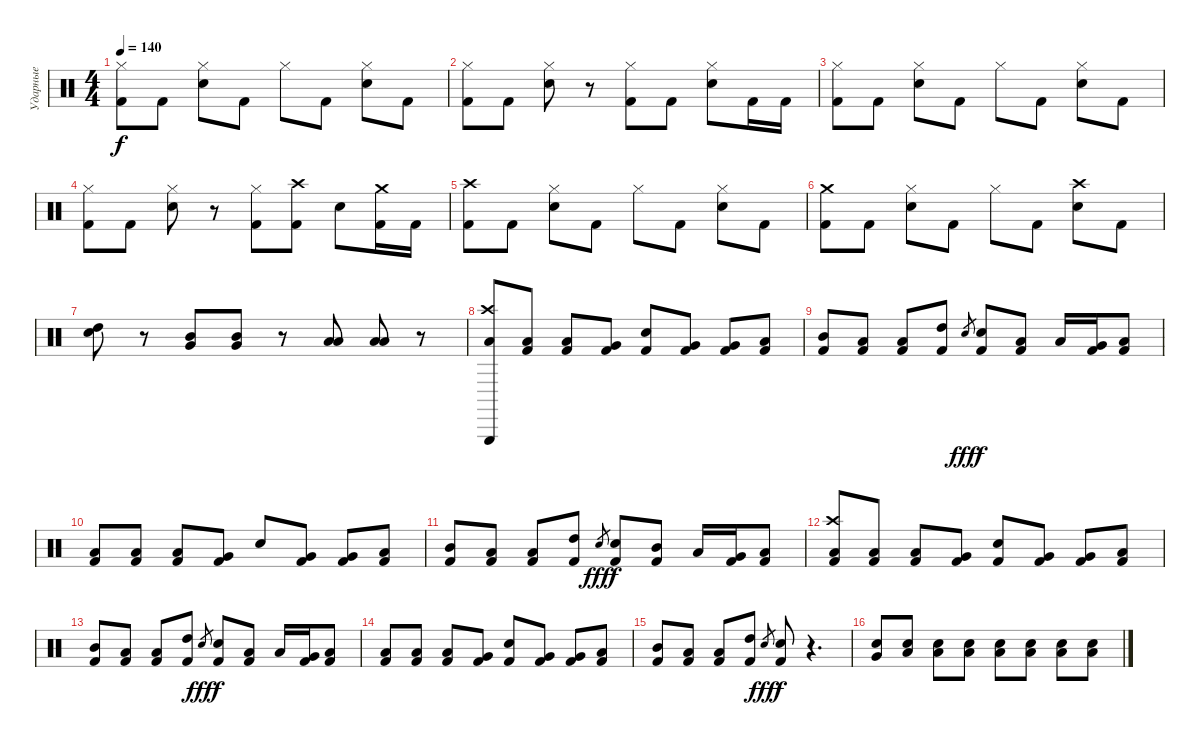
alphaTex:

\track ("Ударные" "Ударные") {instrument percussion}
\staff {score}
\articulation defaults
\ts (4 4)
\tempo 140
\clef neutral
\ks c
("Kick (hit) 2" "Hi-Hat (closed)").8{dy f} "Kick (hit) 2".8 ("Electric Snare (hit)" "Hi-Hat (closed)").8 "Kick (hit) 2".8 "Hi-Hat (closed)".8 "Kick (hit) 2".8 ("Electric Snare (hit)" "Hi-Hat (closed)").8 "Kick (hit) 2".8 |
("Kick (hit) 2" "Hi-Hat (closed)").8 "Kick (hit) 2".8 ("Electric Snare (hit)" "Hi-Hat (closed)").8 r.8 ("Kick (hit) 2" "Hi-Hat (closed)").8 "Kick (hit) 2".8 ("Electric Snare (hit)" "Hi-Hat (closed)").8 "Kick (hit) 2".16 "Kick (hit) 2".16 |
("Kick (hit) 2" "Hi-Hat (closed)").8 "Kick (hit) 2".8 ("Electric Snare (hit)" "Hi-Hat (closed)").8 "Kick (hit) 2".8 "Hi-Hat (closed)".8 "Kick (hit) 2".8 ("Electric Snare (hit)" "Hi-Hat (closed)").8 "Kick (hit) 2".8 |
("Kick (hit) 2" "Hi-Hat (closed)").8 "Kick (hit) 2".8 ("Electric Snare (hit)" "Hi-Hat (closed)").8 r.8 ("Kick (hit) 2" "Hi-Hat (closed)").8 ("Kick (hit) 2" "Crash high (hit)").8 "Electric Snare (hit)".8 ("Kick (hit) 2" "Crash medium (hit)").16 "Kick (hit) 2".16 |
("Kick (hit) 2" "Crash high (hit)").8 "Kick (hit) 2".8 ("Electric Snare (hit)" "Hi-Hat (closed)").8 "Kick (hit) 2".8 "Hi-Hat (closed)".8 "Kick (hit) 2".8 ("Electric Snare (hit)" "Hi-Hat (closed)").8 "Kick (hit) 2".8 |
("Kick (hit) 2" "Crash medium (hit)").8 "Kick (hit) 2".8 ("Electric Snare (hit)" "Hi-Hat (closed)").8 "Kick (hit) 2".8 "Hi-Hat (closed)".8 "Kick (hit) 2".8 ("Electric Snare (hit)" "Crash high (hit)").8 "Kick (hit) 2".8 |
("Electric Snare (hit)" "High Tom (hit)").8 r.8 ("Mid Tom (hit)" "Very Low Tom (hit)").8 ("Mid Tom (hit)" "Very Low Tom (hit)").8 r.8 ("Low Floor Tom (hit)" "Low Tom (hit)").8 ("Low Floor Tom (hit)" "Low Tom (hit)").8 r.8 |
("Triangle (hit)" "Low Floor Tom (hit)" "Crash high (hit)").8 ("Kick (hit) 2" "Low Floor Tom (hit)").8 ("Kick (hit) 2" "Low Tom (hit)").8 ("Kick (hit) 2" "Very Low Tom (hit)").8 ("Kick (hit) 2" "Electric Snare (hit)").8 ("Kick (hit) 2" "Very Low Tom (hit)").8 ("Kick (hit) 2" "Very Low Tom (hit)").8 ("Kick (hit) 2" "Low Floor Tom (hit)").8 |
("Kick (hit) 2" "Mid Tom (hit)").8 ("Kick (hit) 2" "Low Floor Tom (hit)").8 ("Kick (hit) 2" "Low Tom (hit)").8 ("Kick (hit) 2" "High Tom (hit)").8 "Electric Snare (hit)".8{gr dy fff} ("Kick (hit) 2" "Electric Snare (hit)").8{dy f} ("Kick (hit) 2" "Low Floor Tom (hit)").8 "Low Tom (hit)".16 ("Very Low Tom (hit)" "Kick (hit) 2").16 ("Kick (hit) 2" "Low Tom (hit)").8 |
("Kick (hit) 2" "Low Floor Tom (hit)").8 ("Kick (hit) 2" "Low Floor Tom (hit)").8 ("Kick (hit) 2" "Low Tom (hit)").8 ("Kick (hit) 2" "Very Low Tom (hit)").8 "Electric Snare (hit)".8 ("Kick (hit) 2" "Very Low Tom (hit)").8 ("Kick (hit) 2" "Very Low Tom (hit)").8 ("Kick (hit) 2" "Low Floor Tom (hit)").8 |
("Kick (hit) 2" "Mid Tom (hit)").8 ("Kick (hit) 2" "Low Floor Tom (hit)").8 ("Kick (hit) 2" "Low Tom (hit)").8 ("Kick (hit) 2" "High Tom (hit)").8 "Electric Snare (hit)".8{gr dy fff} ("Kick (hit) 2" "Electric Snare (hit)").8{dy f} ("Kick (hit) 2" "Mid Tom (hit)").8 "Low Tom (hit)".16 ("Very Low Tom (hit)" "Kick (hit) 2").16 ("Kick (hit) 2" "Low Tom (hit)").8 |
("Kick (hit) 2" "Low Floor Tom (hit)" "Crash high (hit)").8 ("Kick (hit) 2" "Low Floor Tom (hit)").8 ("Kick (hit) 2" "Low Tom (hit)").8 ("Kick (hit) 2" "Very Low Tom (hit)").8 ("Kick (hit) 2" "Electric Snare (hit)").8 ("Kick (hit) 2" "Very Low Tom (hit)").8 ("Kick (hit) 2" "Very Low Tom (hit)").8 ("Kick (hit) 2" "Low Floor Tom (hit)").8 |
("Kick (hit) 2" "Mid Tom (hit)").8 ("Kick (hit) 2" "Low Floor Tom (hit)").8 ("Kick (hit) 2" "Low Tom (hit)").8 ("Kick (hit) 2" "High Tom (hit)").8 "Electric Snare (hit)".8{gr dy fff} ("Kick (hit) 2" "Electric Snare (hit)").8{dy f} ("Kick (hit) 2" "Low Floor Tom (hit)").8 "Low Tom (hit)".16 ("Very Low Tom (hit)" "Kick (hit) 2").16 ("Kick (hit) 2" "Low Tom (hit)").8 |
("Kick (hit) 2" "Low Floor Tom (hit)").8 ("Kick (hit) 2" "Low Floor Tom (hit)").8 ("Kick (hit) 2" "Low Tom (hit)").8 ("Kick (hit) 2" "Very Low Tom (hit)").8 ("Kick (hit) 2" "Electric Snare (hit)").8 ("Kick (hit) 2" "Very Low Tom (hit)").8 ("Kick (hit) 2" "Very Low Tom (hit)").8 ("Kick (hit) 2" "Low Floor Tom (hit)").8 |
("Kick (hit) 2" "Mid Tom (hit)").8 ("Kick (hit) 2" "Low Floor Tom (hit)").8 ("Kick (hit) 2" "Low Tom (hit)").8 ("Kick (hit) 2" "High Tom (hit)").8 "Electric Snare (hit)".8{gr dy fff} ("Kick (hit) 2" "Electric Snare (hit)").8{dy f} r.4{d volume 0} |
("Very Low Tom (hit)" "Electric Snare (hit)").8{volume 13} ("Electric Snare (hit)" "Low Floor Tom (hit)").8 ("Electric Snare (hit)" "Low Floor Tom (hit)").8 ("Electric Snare (hit)" "Low Floor Tom (hit)").8 ("Electric Snare (hit)" "Low Floor Tom (hit)").8 ("Electric Snare (hit)" "Low Floor Tom (hit)").8 ("Electric Snare (hit)" "Low Floor Tom (hit)").8 ("Electric Snare (hit)" "Low Floor Tom (hit)").8
